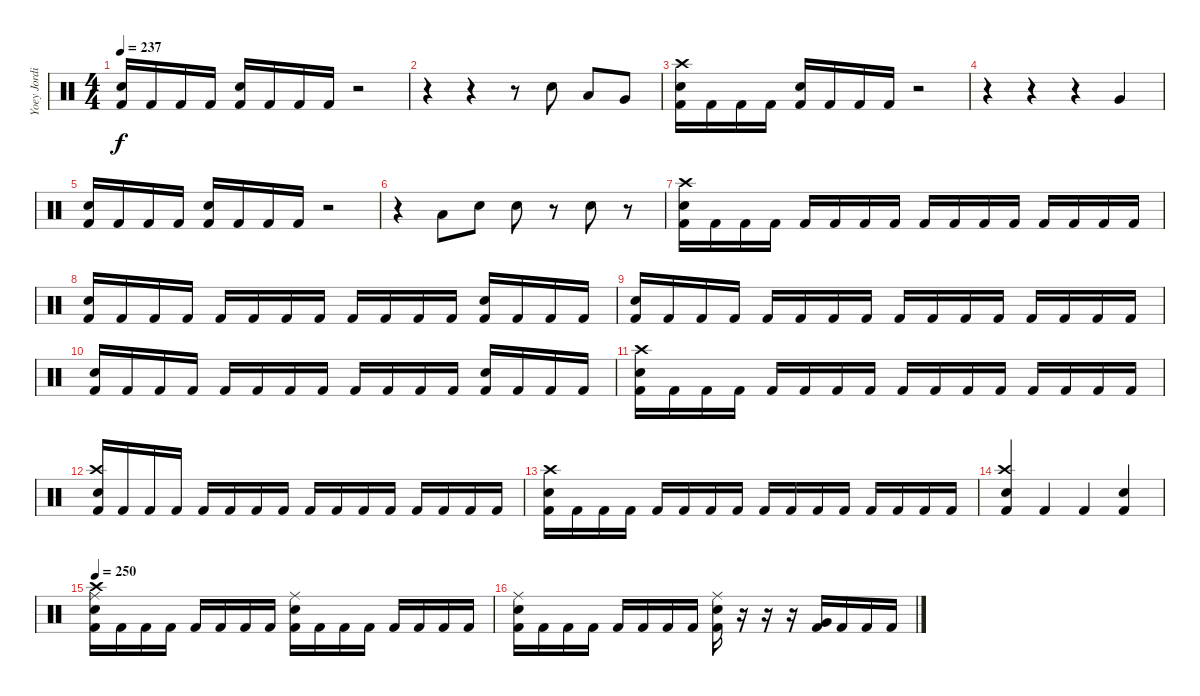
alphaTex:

\track ("Yoey Jordison" "Yoey Jordi") {instrument percussion}
\staff {score}
\articulation defaults
\ts (4 4)
\tempo 237
\clef neutral
\ks c
("Kick (hit) 2" "Electric Snare (hit)").16{dy f} "Kick (hit) 2".16 "Kick (hit) 2".16 "Kick (hit) 2".16 ("Kick (hit) 2" "Electric Snare (hit)").16 "Kick (hit) 2".16 "Kick (hit) 2".16 "Kick (hit) 2".16 r.2 |
r.4 r.4 r.8 "Electric Snare (hit)".8 "Low Floor Tom (hit)".8 "Very Low Tom (hit)".8 |
("Crash high (hit)" "Kick (hit) 2" "Electric Snare (hit)").16 "Kick (hit) 2".16 "Kick (hit) 2".16 "Kick (hit) 2".16 ("Kick (hit) 2" "Electric Snare (hit)").16 "Kick (hit) 2".16 "Kick (hit) 2".16 "Kick (hit) 2".16 r.2 |
r.4 r.4 r.4 "Very Low Tom (hit)".4 |
("Kick (hit) 2" "Electric Snare (hit)").16 "Kick (hit) 2".16 "Kick (hit) 2".16 "Kick (hit) 2".16 ("Kick (hit) 2" "Electric Snare (hit)").16 "Kick (hit) 2".16 "Kick (hit) 2".16 "Kick (hit) 2".16 r.2 |
r.4 "Low Floor Tom (hit)".8 "Electric Snare (hit)".8 "Electric Snare (hit)".8 r.8 "Electric Snare (hit)".8 r.8 |
("Crash high (hit)" "Kick (hit) 2" "Electric Snare (hit)").16 "Kick (hit) 2".16 "Kick (hit) 2".16 "Kick (hit) 2".16 "Kick (hit) 2".16 "Kick (hit) 2".16 "Kick (hit) 2".16 "Kick (hit) 2".16 "Kick (hit) 2".16 "Kick (hit) 2".16 "Kick (hit) 2".16 "Kick (hit) 2".16 "Kick (hit) 2".16 "Kick (hit) 2".16 "Kick (hit) 2".16 "Kick (hit) 2".16 |
("Kick (hit) 2" "Snare (hit) 2").16 "Kick (hit) 2".16 "Kick (hit) 2".16 "Kick (hit) 2".16 "Kick (hit) 2".16 "Kick (hit) 2".16 "Kick (hit) 2".16 "Kick (hit) 2".16 "Kick (hit) 2".16 "Kick (hit) 2".16 "Kick (hit) 2".16 "Kick (hit) 2".16 ("Kick (hit) 2" "Snare (hit) 2").16 "Kick (hit) 2".16 "Kick (hit) 2".16 "Kick (hit) 2".16 |
("Kick (hit) 2" "Electric Snare (hit)").16 "Kick (hit) 2".16 "Kick (hit) 2".16 "Kick (hit) 2".16 "Kick (hit) 2".16 "Kick (hit) 2".16 "Kick (hit) 2".16 "Kick (hit) 2".16 "Kick (hit) 2".16 "Kick (hit) 2".16 "Kick (hit) 2".16 "Kick (hit) 2".16 "Kick (hit) 2".16 "Kick (hit) 2".16 "Kick (hit) 2".16 "Kick (hit) 2".16 |
("Kick (hit) 2" "Snare (hit) 2").16 "Kick (hit) 2".16 "Kick (hit) 2".16 "Kick (hit) 2".16 "Kick (hit) 2".16 "Kick (hit) 2".16 "Kick (hit) 2".16 "Kick (hit) 2".16 "Kick (hit) 2".16 "Kick (hit) 2".16 "Kick (hit) 2".16 "Kick (hit) 2".16 ("Kick (hit) 2" "Snare (hit) 2").16 "Kick (hit) 2".16 "Kick (hit) 2".16 "Kick (hit) 2".16 |
("Crash high (hit)" "Kick (hit) 2" "Electric Snare (hit)").16 "Kick (hit) 2".16 "Kick (hit) 2".16 "Kick (hit) 2".16 "Kick (hit) 2".16 "Kick (hit) 2".16 "Kick (hit) 2".16 "Kick (hit) 2".16 "Kick (hit) 2".16 "Kick (hit) 2".16 "Kick (hit) 2".16 "Kick (hit) 2".16 "Kick (hit) 2".16 "Kick (hit) 2".16 "Kick (hit) 2".16 "Kick (hit) 2".16 |
("Crash high (hit)" "Kick (hit) 2" "Snare (hit) 2").16 "Kick (hit) 2".16 "Kick (hit) 2".16 "Kick (hit) 2".16 "Kick (hit) 2".16 "Kick (hit) 2".16 "Kick (hit) 2".16 "Kick (hit) 2".16 "Kick (hit) 2".16 "Kick (hit) 2".16 "Kick (hit) 2".16 "Kick (hit) 2".16 "Kick (hit) 2".16 "Kick (hit) 2".16 "Kick (hit) 2".16 "Kick (hit) 2".16 |
("Crash high (hit)" "Kick (hit) 2" "Electric Snare (hit)").16 "Kick (hit) 2".16 "Kick (hit) 2".16 "Kick (hit) 2".16 "Kick (hit) 2".16 "Kick (hit) 2".16 "Kick (hit) 2".16 "Kick (hit) 2".16 "Kick (hit) 2".16 "Kick (hit) 2".16 "Kick (hit) 2".16 "Kick (hit) 2".16 "Kick (hit) 2".16 "Kick (hit) 2".16 "Kick (hit) 2".16 "Kick (hit) 2".16 |
("Crash high (hit)" "Kick (hit) 2" "Snare (hit) 2").4 "Kick (hit) 2".4 "Kick (hit) 2".4 ("Kick (hit) 2" "Electric Snare (hit)").4 |
\tempo 250
("Crash high (hit)" "Ride (middle)" "Kick (hit) 2" "Electric Snare (hit)").16 "Kick (hit) 2".16 "Kick (hit) 2".16 "Kick (hit) 2".16 "Kick (hit) 2".16 "Kick (hit) 2".16 "Kick (hit) 2".16 "Kick (hit) 2".16 ("Ride (middle)" "Kick (hit) 2" "Snare (hit) 2").16 "Kick (hit) 2".16 "Kick (hit) 2".16 "Kick (hit) 2".16 "Kick (hit) 2".16 "Kick (hit) 2".16 "Kick (hit) 2".16 "Kick (hit) 2".16 |
("Ride (middle)" "Kick (hit) 2" "Electric Snare (hit)").16 "Kick (hit) 2".16 "Kick (hit) 2".16 "Kick (hit) 2".16 "Kick (hit) 2".16 "Kick (hit) 2".16 "Kick (hit) 2".16 "Kick (hit) 2".16 ("Ride (middle)" "Kick (hit) 2" "Snare (hit) 2").16 r.16 r.16 r.16 ("Kick (hit) 2" "Very Low Tom (hit)").16 "Kick (hit) 2".16 "Kick (hit) 2".16 "Kick (hit) 2".16
